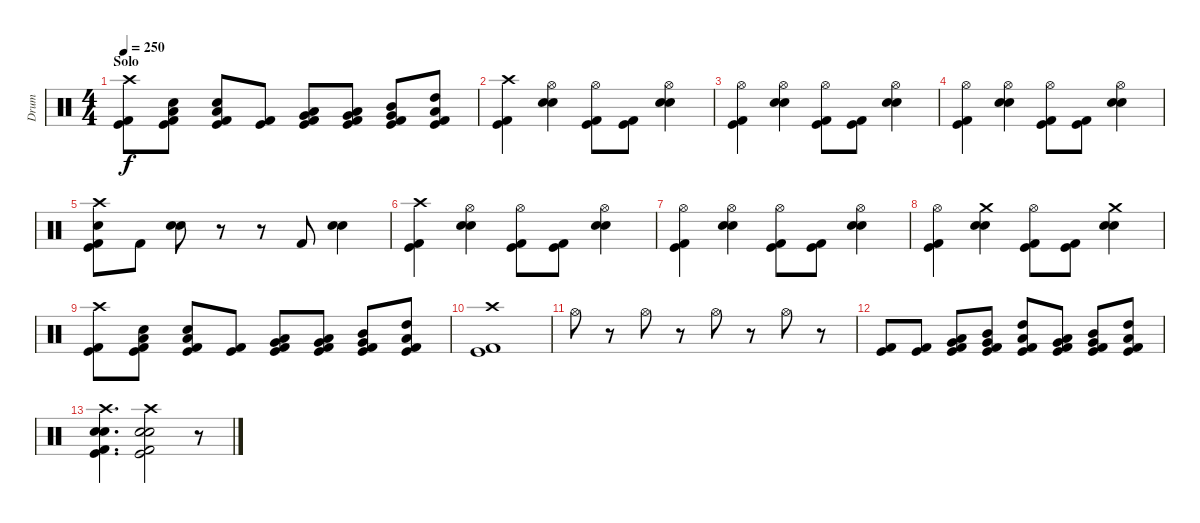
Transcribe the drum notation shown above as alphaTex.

\track ("Drum" "Drum") {instrument percussion}
\staff {score}
\articulation defaults
\ts (4 4)
\section ("" "Solo")
\tempo 250
\clef neutral
\ks c
("Crash high (hit)" "Kick (hit) 2" "Kick (hit)").8{dy f} ("Low Floor Tom (hit)" "Electric Snare (hit)" "Kick (hit) 2" "Kick (hit)").8 ("Low Floor Tom (hit)" "Electric Snare (hit)" "Kick (hit) 2" "Kick (hit)").8 ("Kick (hit) 2" "Kick (hit)").8 ("Low Floor Tom (hit)" "Very Low Tom (hit)" "Kick (hit) 2" "Kick (hit)").8 ("Low Floor Tom (hit)" "Very Low Tom (hit)" "Kick (hit) 2" "Kick (hit)").8 ("Mid Tom (hit)" "Very Low Tom (hit)" "Kick (hit) 2" "Kick (hit)").8 ("High Tom (hit)" "Low Tom (hit)" "Kick (hit) 2" "Kick (hit)").8 |
("Crash high (hit)" "Kick (hit) 2" "Kick (hit)").4 ("Hi-Hat (open)" "Electric Snare (hit)" "Snare (hit) 2").4 ("Hi-Hat (open)" "Kick (hit) 2" "Kick (hit)").8 ("Kick (hit) 2" "Kick (hit)").8 ("Hi-Hat (open)" "Electric Snare (hit)" "Snare (hit) 2").4 |
("Hi-Hat (open)" "Kick (hit) 2" "Kick (hit)").4 ("Hi-Hat (open)" "Electric Snare (hit)" "Snare (hit) 2").4 ("Hi-Hat (open)" "Kick (hit) 2" "Kick (hit)").8 ("Kick (hit) 2" "Kick (hit)").8 ("Hi-Hat (open)" "Electric Snare (hit)" "Snare (hit) 2").4 |
("Hi-Hat (open)" "Kick (hit) 2" "Kick (hit)").4 ("Hi-Hat (open)" "Electric Snare (hit)" "Snare (hit) 2").4 ("Hi-Hat (open)" "Kick (hit) 2" "Kick (hit)").8 ("Kick (hit) 2" "Kick (hit)").8 ("Hi-Hat (open)" "Electric Snare (hit)" "Snare (hit) 2").4 |
("Crash high (hit)" "Electric Snare (hit)" "Kick (hit) 2" "Kick (hit)").8 "Kick (hit) 2".8 ("Electric Snare (hit)" "Snare (hit) 2").8 r.8 r.8 "Kick (hit) 2".8 ("Electric Snare (hit)" "Snare (hit) 2").4 |
("Crash high (hit)" "Kick (hit) 2" "Kick (hit)").4 ("Hi-Hat (open)" "Electric Snare (hit)" "Snare (hit) 2").4 ("Hi-Hat (open)" "Kick (hit) 2" "Kick (hit)").8 ("Kick (hit) 2" "Kick (hit)").8 ("Hi-Hat (open)" "Electric Snare (hit)" "Snare (hit) 2").4 |
("Hi-Hat (open)" "Kick (hit) 2" "Kick (hit)").4 ("Hi-Hat (open)" "Electric Snare (hit)" "Snare (hit) 2").4 ("Hi-Hat (open)" "Kick (hit) 2" "Kick (hit)").8 ("Kick (hit) 2" "Kick (hit)").8 ("Hi-Hat (open)" "Electric Snare (hit)" "Snare (hit) 2").4 |
("Hi-Hat (open)" "Kick (hit) 2" "Kick (hit)").4 ("Crash medium (hit)" "Electric Snare (hit)" "Snare (hit) 2").4 ("Hi-Hat (open)" "Kick (hit) 2" "Kick (hit)").8 ("Kick (hit) 2" "Kick (hit)").8 ("Crash medium (hit)" "Electric Snare (hit)" "Snare (hit) 2").4 |
("Crash high (hit)" "Kick (hit) 2" "Kick (hit)").8 ("Low Floor Tom (hit)" "Electric Snare (hit)" "Kick (hit) 2" "Kick (hit)").8 ("Low Floor Tom (hit)" "Electric Snare (hit)" "Kick (hit) 2" "Kick (hit)").8 ("Kick (hit) 2" "Kick (hit)").8 ("Low Floor Tom (hit)" "Very Low Tom (hit)" "Kick (hit) 2" "Kick (hit)").8 ("Low Floor Tom (hit)" "Very Low Tom (hit)" "Kick (hit) 2" "Kick (hit)").8 ("Mid Tom (hit)" "Very Low Tom (hit)" "Kick (hit) 2" "Kick (hit)").8 ("High Tom (hit)" "Low Tom (hit)" "Kick (hit) 2" "Kick (hit)").8 |
("Crash high (hit)" "Kick (hit) 2" "Kick (hit)").1 |
"Hi-Hat (open)".8 r.8 "Hi-Hat (open)".8 r.8 "Hi-Hat (open)".8 r.8 "Hi-Hat (open)".8 r.8 |
("Kick (hit) 2" "Kick (hit)").8 ("Kick (hit) 2" "Kick (hit)").8 ("Low Floor Tom (hit)" "Very Low Tom (hit)" "Kick (hit) 2" "Kick (hit)").8 ("Mid Tom (hit)" "Very Low Tom (hit)" "Kick (hit) 2" "Kick (hit)").8 ("High Tom (hit)" "Low Tom (hit)" "Kick (hit) 2" "Kick (hit)").8 ("Low Floor Tom (hit)" "Very Low Tom (hit)" "Kick (hit) 2" "Kick (hit)").8 ("Mid Tom (hit)" "Very Low Tom (hit)" "Kick (hit) 2" "Kick (hit)").8 ("High Tom (hit)" "Low Tom (hit)" "Kick (hit) 2" "Kick (hit)").8 |
("Crash high (hit)" "Snare (hit) 2" "Electric Snare (hit)" "Kick (hit) 2" "Kick (hit)").4{d} ("Crash high (hit)" "Snare (hit) 2" "Electric Snare (hit)" "Kick (hit) 2" "Kick (hit)").2 r.8
